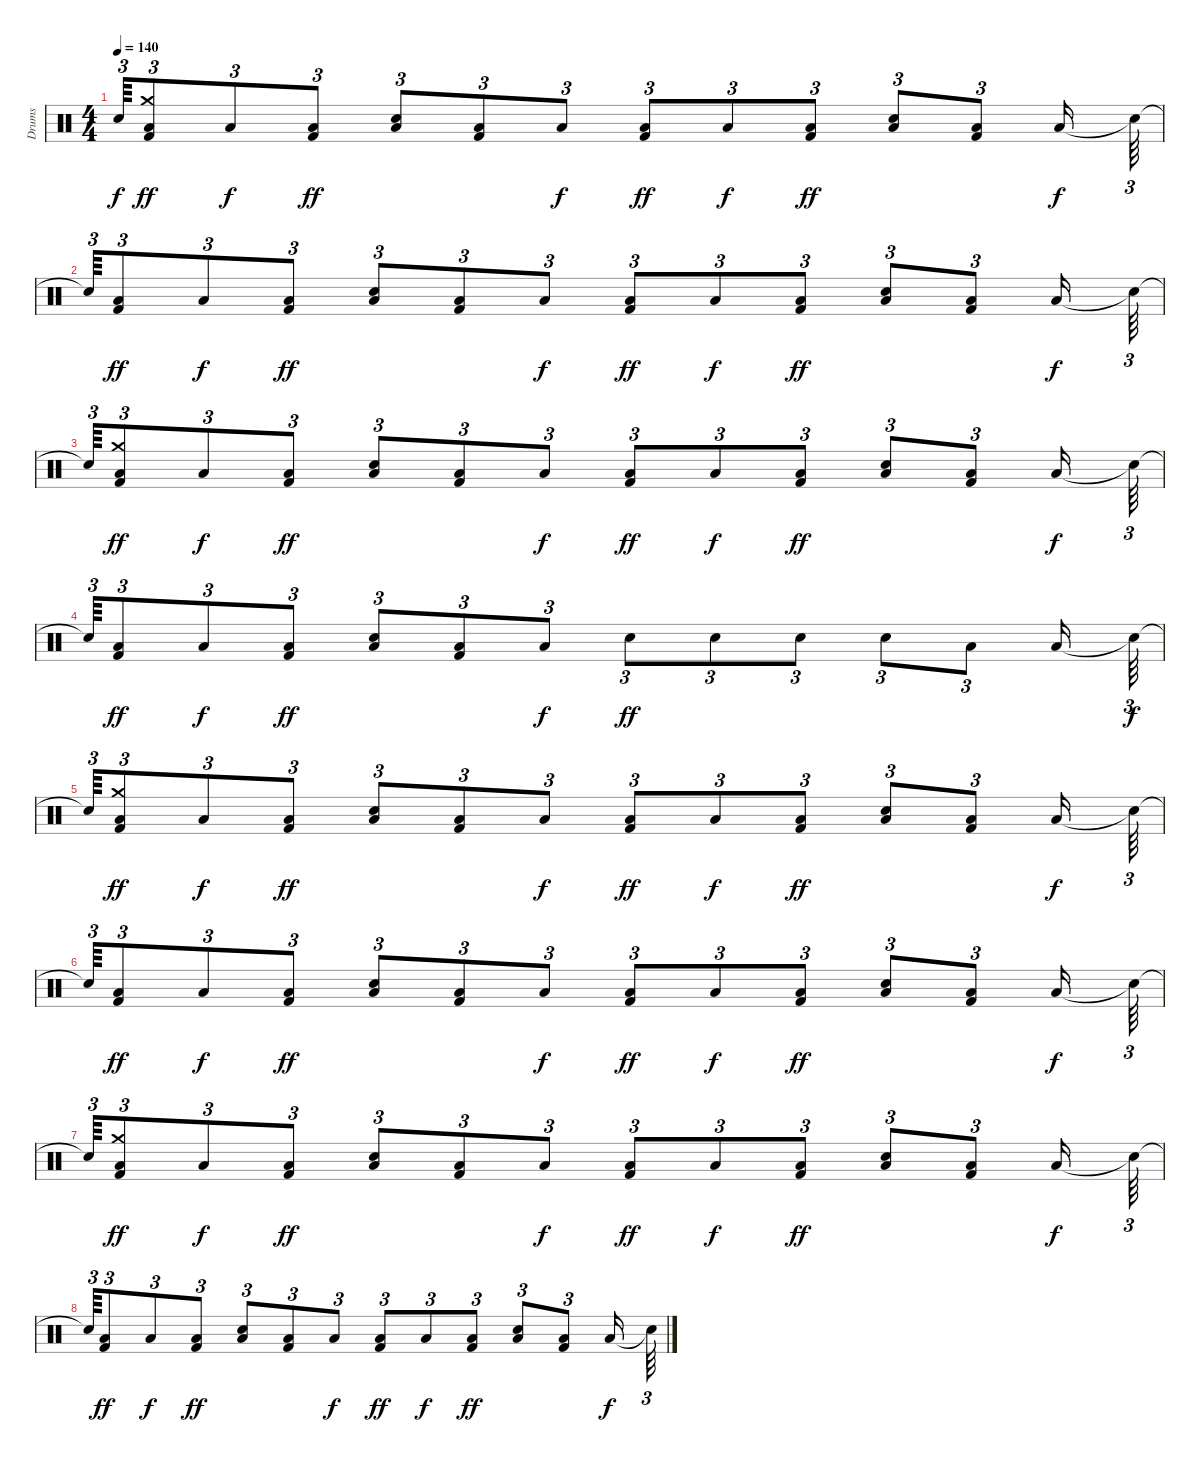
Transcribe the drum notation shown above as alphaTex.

\track ("Drums" "Drums") {instrument percussion}
\staff {score}
\articulation defaults
\ts (4 4)
\tempo 140
\clef neutral
\ks c "Snare (hit)"{t}.64{tu (3 2) dy f}
("Kick (hit) 2" "Crash medium (hit)" "Low Floor Tom (hit)").8{tu (3 2) dy ff volume 13} "Low Floor Tom (hit)".8{tu (3 2) dy f} ("Kick (hit) 2" "Low Floor Tom (hit)").8{tu (3 2) dy ff volume 12} ("Snare (hit) 2" "Low Floor Tom (hit)").8{tu (3 2)} ("Kick (hit) 2" "Low Floor Tom (hit)").8{tu (3 2)} "Low Floor Tom (hit)".8{tu (3 2) dy f} ("Kick (hit) 2" "Low Floor Tom (hit)").8{tu (3 2) dy ff} "Low Floor Tom (hit)".8{tu (3 2) dy f} ("Kick (hit) 2" "Low Floor Tom (hit)").8{tu (3 2) dy ff} ("Snare (hit) 2" "Low Floor Tom (hit)").8{tu (3 2)} ("Kick (hit) 2" "Low Floor Tom (hit)").8{tu (3 2)} "Low Floor Tom (hit)".16{dy f} "Snare (hit)"{t}.64{tu (3 2)} |
"Snare (hit)"{t}.64{tu (3 2)} ("Kick (hit) 2" "Low Floor Tom (hit)").8{tu (3 2) dy ff} "Low Floor Tom (hit)".8{tu (3 2) dy f} ("Kick (hit) 2" "Low Floor Tom (hit)").8{tu (3 2) dy ff volume 11} ("Snare (hit) 2" "Low Floor Tom (hit)").8{tu (3 2)} ("Kick (hit) 2" "Low Floor Tom (hit)").8{tu (3 2)} "Low Floor Tom (hit)".8{tu (3 2) dy f} ("Kick (hit) 2" "Low Floor Tom (hit)").8{tu (3 2) dy ff} "Low Floor Tom (hit)".8{tu (3 2) dy f} ("Kick (hit) 2" "Low Floor Tom (hit)").8{tu (3 2) dy ff} ("Snare (hit) 2" "Low Floor Tom (hit)").8{tu (3 2)} ("Kick (hit) 2" "Low Floor Tom (hit)").8{tu (3 2)} "Low Floor Tom (hit)".16{dy f} "Snare (hit)"{t}.64{tu (3 2)} |
"Snare (hit)"{t}.64{tu (3 2)} ("Kick (hit) 2" "Crash medium (hit)" "Low Floor Tom (hit)").8{tu (3 2) dy ff volume 10} "Low Floor Tom (hit)".8{tu (3 2) dy f} ("Kick (hit) 2" "Low Floor Tom (hit)").8{tu (3 2) dy ff} ("Snare (hit) 2" "Low Floor Tom (hit)").8{tu (3 2)} ("Kick (hit) 2" "Low Floor Tom (hit)").8{tu (3 2)} "Low Floor Tom (hit)".8{tu (3 2) dy f} ("Kick (hit) 2" "Low Floor Tom (hit)").8{tu (3 2) dy ff} "Low Floor Tom (hit)".8{tu (3 2) dy f} ("Kick (hit) 2" "Low Floor Tom (hit)").8{tu (3 2) dy ff} ("Snare (hit) 2" "Low Floor Tom (hit)").8{tu (3 2)} ("Kick (hit) 2" "Low Floor Tom (hit)").8{tu (3 2)} "Low Floor Tom (hit)".16{dy f} "Snare (hit)"{t}.64{tu (3 2)} |
"Snare (hit)"{t}.64{tu (3 2)} ("Kick (hit) 2" "Low Floor Tom (hit)").8{tu (3 2) dy ff} "Low Floor Tom (hit)".8{tu (3 2) dy f} ("Kick (hit) 2" "Low Floor Tom (hit)").8{tu (3 2) dy ff volume 9} ("Snare (hit) 2" "Low Floor Tom (hit)").8{tu (3 2)} ("Kick (hit) 2" "Low Floor Tom (hit)").8{tu (3 2)} "Low Floor Tom (hit)".8{tu (3 2) dy f} "Snare (hit) 2".8{tu (3 2) dy ff} "Snare (hit) 2".8{tu (3 2)} "Snare (hit) 2".8{tu (3 2)} "Snare (hit) 2".8{tu (3 2)} "Low Tom (hit)".8{tu (3 2)} "Low Floor Tom (hit)".16{volume 8} "Snare (hit)"{t}.64{tu (3 2) dy f} |
"Snare (hit)"{t}.64{tu (3 2)} ("Kick (hit) 2" "Crash medium (hit)" "Low Floor Tom (hit)").8{tu (3 2) dy ff} "Low Floor Tom (hit)".8{tu (3 2) dy f} ("Kick (hit) 2" "Low Floor Tom (hit)").8{tu (3 2) dy ff} ("Snare (hit) 2" "Low Floor Tom (hit)").8{tu (3 2)} ("Kick (hit) 2" "Low Floor Tom (hit)").8{tu (3 2)} "Low Floor Tom (hit)".8{tu (3 2) dy f} ("Kick (hit) 2" "Low Floor Tom (hit)").8{tu (3 2) dy ff} "Low Floor Tom (hit)".8{tu (3 2) dy f} ("Kick (hit) 2" "Low Floor Tom (hit)").8{tu (3 2) dy ff} ("Snare (hit) 2" "Low Floor Tom (hit)").8{tu (3 2)} ("Kick (hit) 2" "Low Floor Tom (hit)").8{tu (3 2)} "Low Floor Tom (hit)".16{dy f} "Snare (hit)"{t}.64{tu (3 2)} |
"Snare (hit)"{t}.64{tu (3 2)} ("Kick (hit) 2" "Low Floor Tom (hit)").8{tu (3 2) dy ff volume 7} "Low Floor Tom (hit)".8{tu (3 2) dy f} ("Kick (hit) 2" "Low Floor Tom (hit)").8{tu (3 2) dy ff} ("Snare (hit) 2" "Low Floor Tom (hit)").8{tu (3 2)} ("Kick (hit) 2" "Low Floor Tom (hit)").8{tu (3 2)} "Low Floor Tom (hit)".8{tu (3 2) dy f} ("Kick (hit) 2" "Low Floor Tom (hit)").8{tu (3 2) dy ff} "Low Floor Tom (hit)".8{tu (3 2) dy f} ("Kick (hit) 2" "Low Floor Tom (hit)").8{tu (3 2) dy ff} ("Snare (hit) 2" "Low Floor Tom (hit)").8{tu (3 2) volume 6} ("Kick (hit) 2" "Low Floor Tom (hit)").8{tu (3 2)} "Low Floor Tom (hit)".16{dy f} "Snare (hit)"{t}.64{tu (3 2)} |
"Snare (hit)"{t}.64{tu (3 2)} ("Kick (hit) 2" "Crash medium (hit)" "Low Floor Tom (hit)").8{tu (3 2) dy ff} "Low Floor Tom (hit)".8{tu (3 2) dy f} ("Kick (hit) 2" "Low Floor Tom (hit)").8{tu (3 2) dy ff} ("Snare (hit) 2" "Low Floor Tom (hit)").8{tu (3 2)} ("Kick (hit) 2" "Low Floor Tom (hit)").8{tu (3 2)} "Low Floor Tom (hit)".8{tu (3 2) dy f} ("Kick (hit) 2" "Low Floor Tom (hit)").8{tu (3 2) dy ff} "Low Floor Tom (hit)".8{tu (3 2) dy f} ("Kick (hit) 2" "Low Floor Tom (hit)").8{tu (3 2) dy ff} ("Snare (hit) 2" "Low Floor Tom (hit)").8{tu (3 2)} ("Kick (hit) 2" "Low Floor Tom (hit)").8{tu (3 2) volume 5} "Low Floor Tom (hit)".16{dy f} "Snare (hit)"{t}.64{tu (3 2)} |
"Snare (hit)"{t}.64{tu (3 2)} ("Kick (hit) 2" "Low Floor Tom (hit)").8{tu (3 2) dy ff} "Low Floor Tom (hit)".8{tu (3 2) dy f} ("Kick (hit) 2" "Low Floor Tom (hit)").8{tu (3 2) dy ff} ("Snare (hit) 2" "Low Floor Tom (hit)").8{tu (3 2)} ("Kick (hit) 2" "Low Floor Tom (hit)").8{tu (3 2)} "Low Floor Tom (hit)".8{tu (3 2) dy f} ("Kick (hit) 2" "Low Floor Tom (hit)").8{tu (3 2) dy ff} "Low Floor Tom (hit)".8{tu (3 2) dy f} ("Kick (hit) 2" "Low Floor Tom (hit)").8{tu (3 2) dy ff volume 4} ("Snare (hit) 2" "Low Floor Tom (hit)").8{tu (3 2)} ("Kick (hit) 2" "Low Floor Tom (hit)").8{tu (3 2)} "Low Floor Tom (hit)".16{dy f} "Snare (hit)"{t}.64{tu (3 2)}
